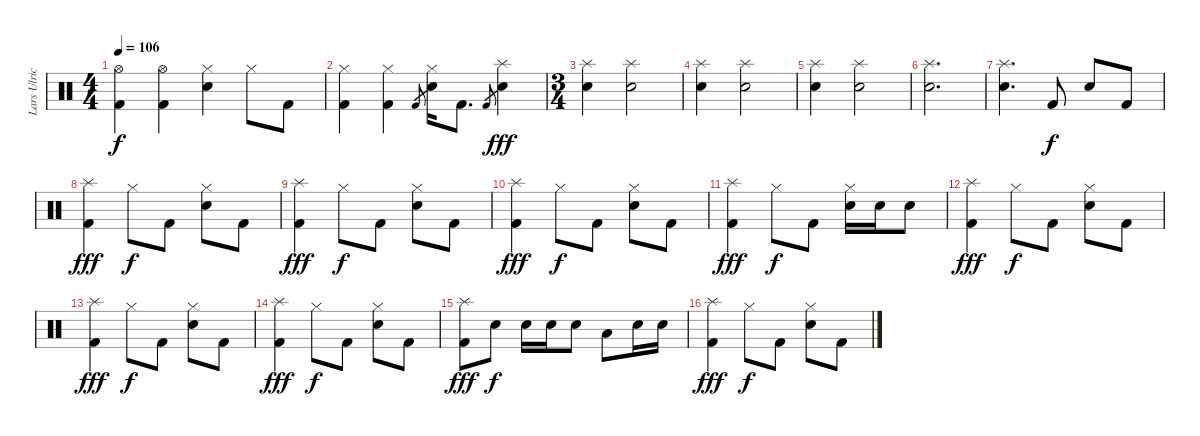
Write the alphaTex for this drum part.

\track ("Lars Ulrich [Drums]" "Lars Ulric") {instrument percussion}
\staff {score}
\articulation defaults
\ts (4 4)
\tempo 106
\clef neutral
\ks c
("Hi-Hat (open)" "Kick (hit) 2").4{dy f} ("Hi-Hat (open)" "Kick (hit) 2").4 ("Hi-Hat (closed)" "Electric Snare (hit)").4 "Hi-Hat (closed)".8 "Kick (hit) 2".8 |
("Hi-Hat (closed)" "Kick (hit) 2").4 ("Hi-Hat (closed)" "Kick (hit) 2").4 "Kick (hit) 2".8{gr} ("Hi-Hat (closed)" "Electric Snare (hit)").16 "Kick (hit) 2".8{d} "Kick (hit) 2".8{gr} ("Splash (hit)" "Electric Snare (hit)").4{dy fff} |
\ts (3 4)
("Splash (hit)" "Electric Snare (hit)").4 ("Splash (hit)" "Electric Snare (hit)").2 |
("Splash (hit)" "Electric Snare (hit)").4 ("Splash (hit)" "Electric Snare (hit)").2 |
("Splash (hit)" "Electric Snare (hit)").4 ("Splash (hit)" "Electric Snare (hit)").2 |
("Splash (hit)" "Electric Snare (hit)").2{d} |
("Splash (hit)" "Electric Snare (hit)").4{d} "Kick (hit) 2".8{dy f} "Electric Snare (hit)".8 "Kick (hit) 2".8 |
("Splash (hit)" "Kick (hit) 2").4{dy fff} "Hi-Hat (closed)".8{dy f} "Kick (hit) 2".8 ("Hi-Hat (closed)" "Electric Snare (hit)").8 "Kick (hit) 2".8 |
("Splash (hit)" "Kick (hit) 2").4{dy fff} "Hi-Hat (closed)".8{dy f} "Kick (hit) 2".8 ("Hi-Hat (closed)" "Electric Snare (hit)").8 "Kick (hit) 2".8 |
("Splash (hit)" "Kick (hit) 2").4{dy fff} "Hi-Hat (closed)".8{dy f} "Kick (hit) 2".8 ("Hi-Hat (closed)" "Electric Snare (hit)").8 "Kick (hit) 2".8 |
("Splash (hit)" "Kick (hit) 2").4{dy fff} "Hi-Hat (closed)".8{dy f} "Kick (hit) 2".8 ("Hi-Hat (closed)" "Electric Snare (hit)").16 "Electric Snare (hit)".16 "Electric Snare (hit)".8 |
("Splash (hit)" "Kick (hit) 2").4{dy fff} "Hi-Hat (closed)".8{dy f} "Kick (hit) 2".8 ("Hi-Hat (closed)" "Electric Snare (hit)").8 "Kick (hit) 2".8 |
("Splash (hit)" "Kick (hit) 2").4{dy fff} "Hi-Hat (closed)".8{dy f} "Kick (hit) 2".8 ("Hi-Hat (closed)" "Electric Snare (hit)").8 "Kick (hit) 2".8 |
("Splash (hit)" "Kick (hit) 2").4{dy fff} "Hi-Hat (closed)".8{dy f} "Kick (hit) 2".8 ("Hi-Hat (closed)" "Electric Snare (hit)").8 "Kick (hit) 2".8 |
("Splash (hit)" "Kick (hit) 2").8{dy fff} "Electric Snare (hit)".8{dy f} "Electric Snare (hit)".16 "Electric Snare (hit)".16 "Electric Snare (hit)".8 "Low Tom (hit)".8 "Electric Snare (hit)".16 "Electric Snare (hit)".16 |
("Splash (hit)" "Kick (hit) 2").4{dy fff} "Hi-Hat (closed)".8{dy f} "Kick (hit) 2".8 ("Hi-Hat (closed)" "Electric Snare (hit)").8 "Kick (hit) 2".8
